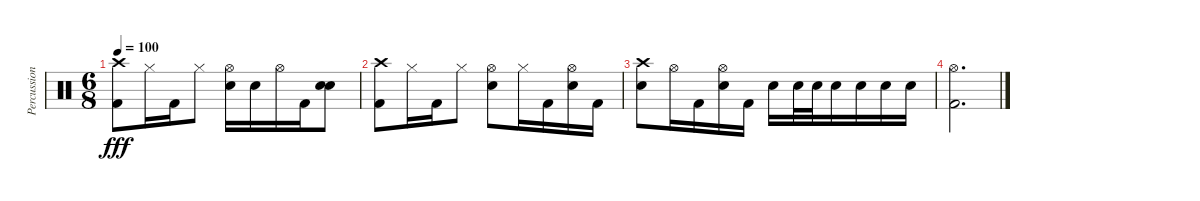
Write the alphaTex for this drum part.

\track ("Percussion" "Percussion") {instrument percussion}
\staff {score}
\articulation defaults
\ts (6 8)
\tempo 100
\clef neutral
\ks c
("Crash high (hit)" "Kick (hit) 2").8{dy fff} "Hi-Hat (closed)".16 "Kick (hit) 2".16 "Hi-Hat (closed)".8 ("Hi-Hat (open)" "Electric Snare (hit)").16 "Electric Snare (hit)".16 "Hi-Hat (open)".16 "Kick (hit) 2".16 ("Electric Snare (hit)" "Electric Snare (hit)").8 |
("Crash high (hit)" "Kick (hit) 2").8 "Hi-Hat (closed)".16 "Kick (hit) 2".16 "Hi-Hat (closed)".8 ("Hi-Hat (open)" "Electric Snare (hit)").8 "Hi-Hat (closed)".16 "Kick (hit) 2".16 ("Hi-Hat (open)" "Electric Snare (hit)").16 "Kick (hit) 2".16 |
("Crash high (hit)" "Electric Snare (hit)").8 "Hi-Hat (open)".16 "Kick (hit) 2".16 ("Hi-Hat (open)" "Electric Snare (hit)").16 "Kick (hit) 2".16 "Electric Snare (hit)".16 "Electric Snare (hit)".32 "Electric Snare (hit)".32 "Electric Snare (hit)".16 "Electric Snare (hit)".16 "Electric Snare (hit)".16 "Electric Snare (hit)".16 |
("Hi-Hat (open)" "Kick (hit) 2").2{d}
